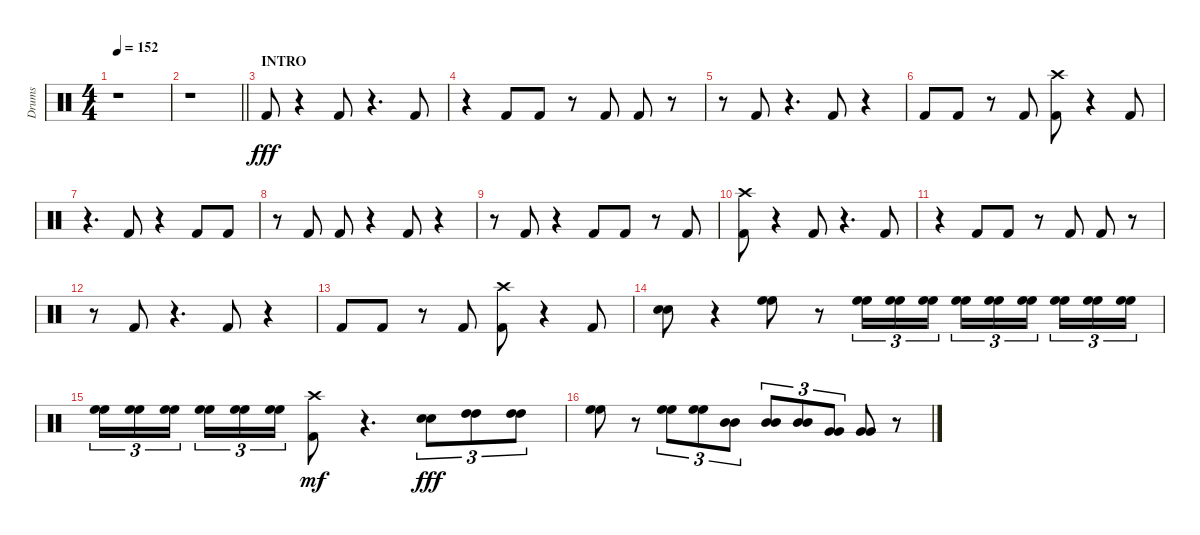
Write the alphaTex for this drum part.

\track ("Drums" "Drums") {instrument percussion}
\staff {score}
\articulation defaults
\ts (4 4)
\tempo 152
\clef neutral
\ks c
r.1{dy fff} |
\barLineRight lightlight
r.1 |
\section ("" "INTRO")
"Kick (hit) 2".8 r.4 "Kick (hit) 2".8 r.4{d} "Kick (hit) 2".8 |
r.4 "Kick (hit) 2".8 "Kick (hit) 2".8 r.8 "Kick (hit) 2".8 "Kick (hit) 2".8 r.8 |
r.8 "Kick (hit) 2".8 r.4{d} "Kick (hit) 2".8 r.4 |
"Kick (hit) 2".8 "Kick (hit) 2".8 r.8 "Kick (hit) 2".8 ("Crash high (hit)" "Kick (hit) 2").8 r.4 "Kick (hit) 2".8 |
r.4{d} "Kick (hit) 2".8 r.4 "Kick (hit) 2".8 "Kick (hit) 2".8 |
r.8 "Kick (hit) 2".8 "Kick (hit) 2".8 r.4 "Kick (hit) 2".8 r.4 |
r.8 "Kick (hit) 2".8 r.4 "Kick (hit) 2".8 "Kick (hit) 2".8 r.8 "Kick (hit) 2".8 |
("Crash high (hit)" "Kick (hit) 2").8 r.4 "Kick (hit) 2".8 r.4{d} "Kick (hit) 2".8 |
r.4 "Kick (hit) 2".8 "Kick (hit) 2".8 r.8 "Kick (hit) 2".8 "Kick (hit) 2".8 r.8 |
r.8 "Kick (hit) 2".8 r.4{d} "Kick (hit) 2".8 r.4 |
"Kick (hit) 2".8 "Kick (hit) 2".8 r.8 "Kick (hit) 2".8 ("Crash high (hit)" "Kick (hit) 2").8 r.4 "Kick (hit) 2".8 |
("Electric Snare (hit)" "Electric Snare (hit)").8 r.4 ("High Floor Tom (hit)" "High Floor Tom (hit)").8 r.8 ("High Floor Tom (hit)" "High Floor Tom (hit)").16{tu (3 2)} ("High Floor Tom (hit)" "High Floor Tom (hit)").16{tu (3 2)} ("High Floor Tom (hit)" "High Floor Tom (hit)").16{tu (3 2)} ("High Floor Tom (hit)" "High Floor Tom (hit)").16{tu (3 2)} ("High Floor Tom (hit)" "High Floor Tom (hit)").16{tu (3 2)} ("High Floor Tom (hit)" "High Floor Tom (hit)").16{tu (3 2) beam splitsecondary} ("High Floor Tom (hit)" "High Floor Tom (hit)").16{tu (3 2)} ("High Floor Tom (hit)" "High Floor Tom (hit)").16{tu (3 2)} ("High Floor Tom (hit)" "High Floor Tom (hit)").16{tu (3 2)} |
("High Floor Tom (hit)" "High Floor Tom (hit)").16{tu (3 2)} ("High Floor Tom (hit)" "High Floor Tom (hit)").16{tu (3 2)} ("High Floor Tom (hit)" "High Floor Tom (hit)").16{tu (3 2) beam splitsecondary} ("High Floor Tom (hit)" "High Floor Tom (hit)").16{tu (3 2)} ("High Floor Tom (hit)" "High Floor Tom (hit)").16{tu (3 2)} ("High Floor Tom (hit)" "High Floor Tom (hit)").16{tu (3 2)} ("Kick (hit) 2" "Crash high (hit)").8{dy mf} r.4{d} ("Electric Snare (hit)" "Electric Snare (hit)").8{tu (3 2) dy fff} ("High Tom (hit)" "High Tom (hit)").8{tu (3 2)} ("High Tom (hit)" "High Tom (hit)").8{tu (3 2)} |
("High Floor Tom (hit)" "High Floor Tom (hit)").8 r.8 ("High Floor Tom (hit)" "High Floor Tom (hit)").8{tu (3 2)} ("High Floor Tom (hit)" "High Floor Tom (hit)").8{tu (3 2)} ("Mid Tom (hit)" "Mid Tom (hit)").8{tu (3 2)} ("Mid Tom (hit)" "Mid Tom (hit)").8{tu (3 2)} ("Mid Tom (hit)" "Mid Tom (hit)").8{tu (3 2)} ("Very Low Tom (hit)" "Very Low Tom (hit)").8{tu (3 2)} ("Very Low Tom (hit)" "Very Low Tom (hit)").8 r.8
